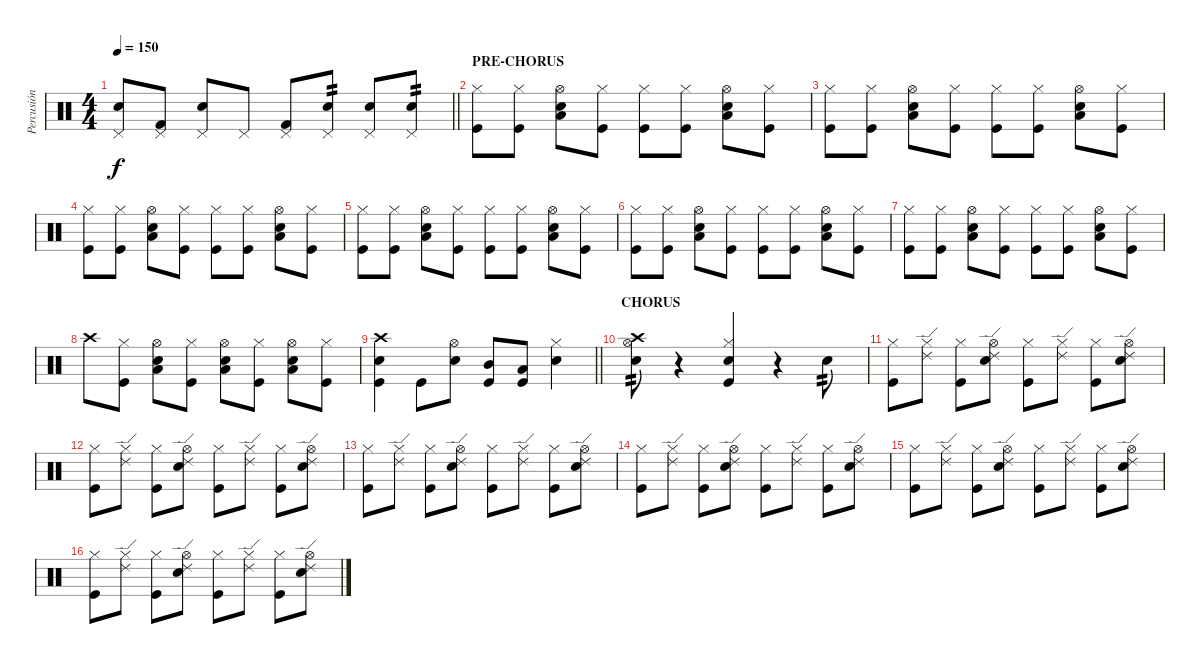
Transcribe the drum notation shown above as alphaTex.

\track ("Percusión" "Percusión") {instrument percussion}
\staff {score}
\articulation defaults
\ts (4 4)
\tempo 150
\clef neutral
\barLineRight lightlight
\ks c
("Electric Snare (hit)" "Pedal Hi-Hat (hit)").8{dy f} ("Kick (hit) 2" "Pedal Hi-Hat (hit)").8 ("Electric Snare (hit)" "Pedal Hi-Hat (hit)").8 "Pedal Hi-Hat (hit)".8 ("Kick (hit) 2" "Pedal Hi-Hat (hit)").8 ("Electric Snare (hit)" "Pedal Hi-Hat (hit)").8{tp 2} ("Electric Snare (hit)" "Pedal Hi-Hat (hit)").8 ("Electric Snare (hit)" "Pedal Hi-Hat (hit)").8{tp 2} |
\section ("" "PRE-CHORUS")
("Kick (hit)" "Hi-Hat (closed)").8 ("Kick (hit)" "Hi-Hat (closed)").8 ("Low Floor Tom (hit)" "Snare (hit) 2" "Hi-Hat (open)").8 ("Kick (hit)" "Hi-Hat (closed)").8 ("Kick (hit)" "Hi-Hat (closed)").8 ("Kick (hit)" "Hi-Hat (closed)").8 ("Low Floor Tom (hit)" "Snare (hit) 2" "Hi-Hat (open)").8 ("Kick (hit)" "Hi-Hat (closed)").8 |
("Kick (hit)" "Hi-Hat (closed)").8 ("Kick (hit)" "Hi-Hat (closed)").8 ("Low Floor Tom (hit)" "Snare (hit) 2" "Hi-Hat (open)").8 ("Kick (hit)" "Hi-Hat (closed)").8 ("Kick (hit)" "Hi-Hat (closed)").8 ("Kick (hit)" "Hi-Hat (closed)").8 ("Low Floor Tom (hit)" "Snare (hit) 2" "Hi-Hat (open)").8 ("Kick (hit)" "Hi-Hat (closed)").8 |
("Kick (hit)" "Hi-Hat (closed)").8 ("Kick (hit)" "Hi-Hat (closed)").8 ("Low Floor Tom (hit)" "Snare (hit) 2" "Hi-Hat (open)").8 ("Kick (hit)" "Hi-Hat (closed)").8 ("Kick (hit)" "Hi-Hat (closed)").8 ("Kick (hit)" "Hi-Hat (closed)").8 ("Low Floor Tom (hit)" "Snare (hit) 2" "Hi-Hat (open)").8 ("Kick (hit)" "Hi-Hat (closed)").8 |
("Kick (hit)" "Hi-Hat (closed)").8 ("Kick (hit)" "Hi-Hat (closed)").8 ("Low Floor Tom (hit)" "Snare (hit) 2" "Hi-Hat (open)").8 ("Kick (hit)" "Hi-Hat (closed)").8 ("Kick (hit)" "Hi-Hat (closed)").8 ("Kick (hit)" "Hi-Hat (closed)").8 ("Low Floor Tom (hit)" "Snare (hit) 2" "Hi-Hat (open)").8 ("Kick (hit)" "Hi-Hat (closed)").8 |
("Kick (hit)" "Hi-Hat (closed)").8 ("Kick (hit)" "Hi-Hat (closed)").8 ("Low Floor Tom (hit)" "Snare (hit) 2" "Hi-Hat (open)").8 ("Kick (hit)" "Hi-Hat (closed)").8 ("Kick (hit)" "Hi-Hat (closed)").8 ("Kick (hit)" "Hi-Hat (closed)").8 ("Low Floor Tom (hit)" "Snare (hit) 2" "Hi-Hat (open)").8 ("Kick (hit)" "Hi-Hat (closed)").8 |
("Kick (hit)" "Hi-Hat (closed)").8 ("Kick (hit)" "Hi-Hat (closed)").8 ("Low Floor Tom (hit)" "Snare (hit) 2" "Hi-Hat (open)").8 ("Kick (hit)" "Hi-Hat (closed)").8 ("Kick (hit)" "Hi-Hat (closed)").8 ("Kick (hit)" "Hi-Hat (closed)").8 ("Low Floor Tom (hit)" "Snare (hit) 2" "Hi-Hat (open)").8 ("Kick (hit)" "Hi-Hat (closed)").8 |
"Crash high (hit)".8 ("Kick (hit)" "Hi-Hat (closed)").8 ("Low Floor Tom (hit)" "Snare (hit) 2" "Hi-Hat (open)").8 ("Kick (hit)" "Hi-Hat (closed)").8 ("Low Floor Tom (hit)" "Snare (hit) 2" "Hi-Hat (open)").8 ("Kick (hit)" "Hi-Hat (closed)").8 ("Low Floor Tom (hit)" "Snare (hit) 2" "Hi-Hat (open)").8 ("Kick (hit)" "Hi-Hat (closed)").8 |
\barLineRight lightlight
("Crash high (hit)" "Kick (hit)" "Snare (hit) 2").4 "Kick (hit)".8 ("Snare (hit) 2" "Hi-Hat (open)").8 ("Mid Tom (hit)" "Kick (hit)").8 ("Low Floor Tom (hit)" "Kick (hit)").8 ("Snare (hit) 2" "Hi-Hat (closed)").4 |
\section ("" "CHORUS")
("Crash high (hit)" "Snare (hit) 2" "Hi-Hat (open)").8{tp 2} r.4 ("Kick (hit)" "Snare (hit) 2" "Hi-Hat (closed)").4 r.4 "Snare (hit) 2".8{tp 2} |
("Kick (hit)" "Hi-Hat (closed)").8 ("Ride (edge) 2" "Hi-Hat (closed)").8 ("Kick (hit)" "Hi-Hat (closed)").8 ("Ride (edge) 2" "Snare (hit) 2" "Hi-Hat (open)").8 ("Kick (hit)" "Hi-Hat (closed)").8 ("Ride (edge) 2" "Hi-Hat (closed)").8 ("Kick (hit)" "Hi-Hat (closed)").8 ("Ride (edge) 2" "Snare (hit) 2" "Hi-Hat (open)").8 |
("Kick (hit)" "Hi-Hat (closed)").8 ("Ride (edge) 2" "Hi-Hat (closed)").8 ("Kick (hit)" "Hi-Hat (closed)").8 ("Ride (edge) 2" "Snare (hit) 2" "Hi-Hat (open)").8 ("Kick (hit)" "Hi-Hat (closed)").8 ("Ride (edge) 2" "Hi-Hat (closed)").8 ("Kick (hit)" "Hi-Hat (closed)").8 ("Ride (edge) 2" "Snare (hit) 2" "Hi-Hat (open)").8 |
("Kick (hit)" "Hi-Hat (closed)").8 ("Ride (edge) 2" "Hi-Hat (closed)").8 ("Kick (hit)" "Hi-Hat (closed)").8 ("Ride (edge) 2" "Snare (hit) 2" "Hi-Hat (open)").8 ("Kick (hit)" "Hi-Hat (closed)").8 ("Ride (edge) 2" "Hi-Hat (closed)").8 ("Kick (hit)" "Hi-Hat (closed)").8 ("Ride (edge) 2" "Snare (hit) 2" "Hi-Hat (open)").8 |
("Kick (hit)" "Hi-Hat (closed)").8 ("Ride (edge) 2" "Hi-Hat (closed)").8 ("Kick (hit)" "Hi-Hat (closed)").8 ("Ride (edge) 2" "Snare (hit) 2" "Hi-Hat (open)").8 ("Kick (hit)" "Hi-Hat (closed)").8 ("Ride (edge) 2" "Hi-Hat (closed)").8 ("Kick (hit)" "Hi-Hat (closed)").8 ("Ride (edge) 2" "Snare (hit) 2" "Hi-Hat (open)").8 |
("Kick (hit)" "Hi-Hat (closed)").8 ("Ride (edge) 2" "Hi-Hat (closed)").8 ("Kick (hit)" "Hi-Hat (closed)").8 ("Ride (edge) 2" "Snare (hit) 2" "Hi-Hat (open)").8 ("Kick (hit)" "Hi-Hat (closed)").8 ("Ride (edge) 2" "Hi-Hat (closed)").8 ("Kick (hit)" "Hi-Hat (closed)").8 ("Ride (edge) 2" "Snare (hit) 2" "Hi-Hat (open)").8 |
("Kick (hit)" "Hi-Hat (closed)").8 ("Ride (edge) 2" "Hi-Hat (closed)").8 ("Kick (hit)" "Hi-Hat (closed)").8 ("Ride (edge) 2" "Snare (hit) 2" "Hi-Hat (open)").8 ("Kick (hit)" "Hi-Hat (closed)").8 ("Ride (edge) 2" "Hi-Hat (closed)").8 ("Kick (hit)" "Hi-Hat (closed)").8 ("Ride (edge) 2" "Snare (hit) 2" "Hi-Hat (open)").8
